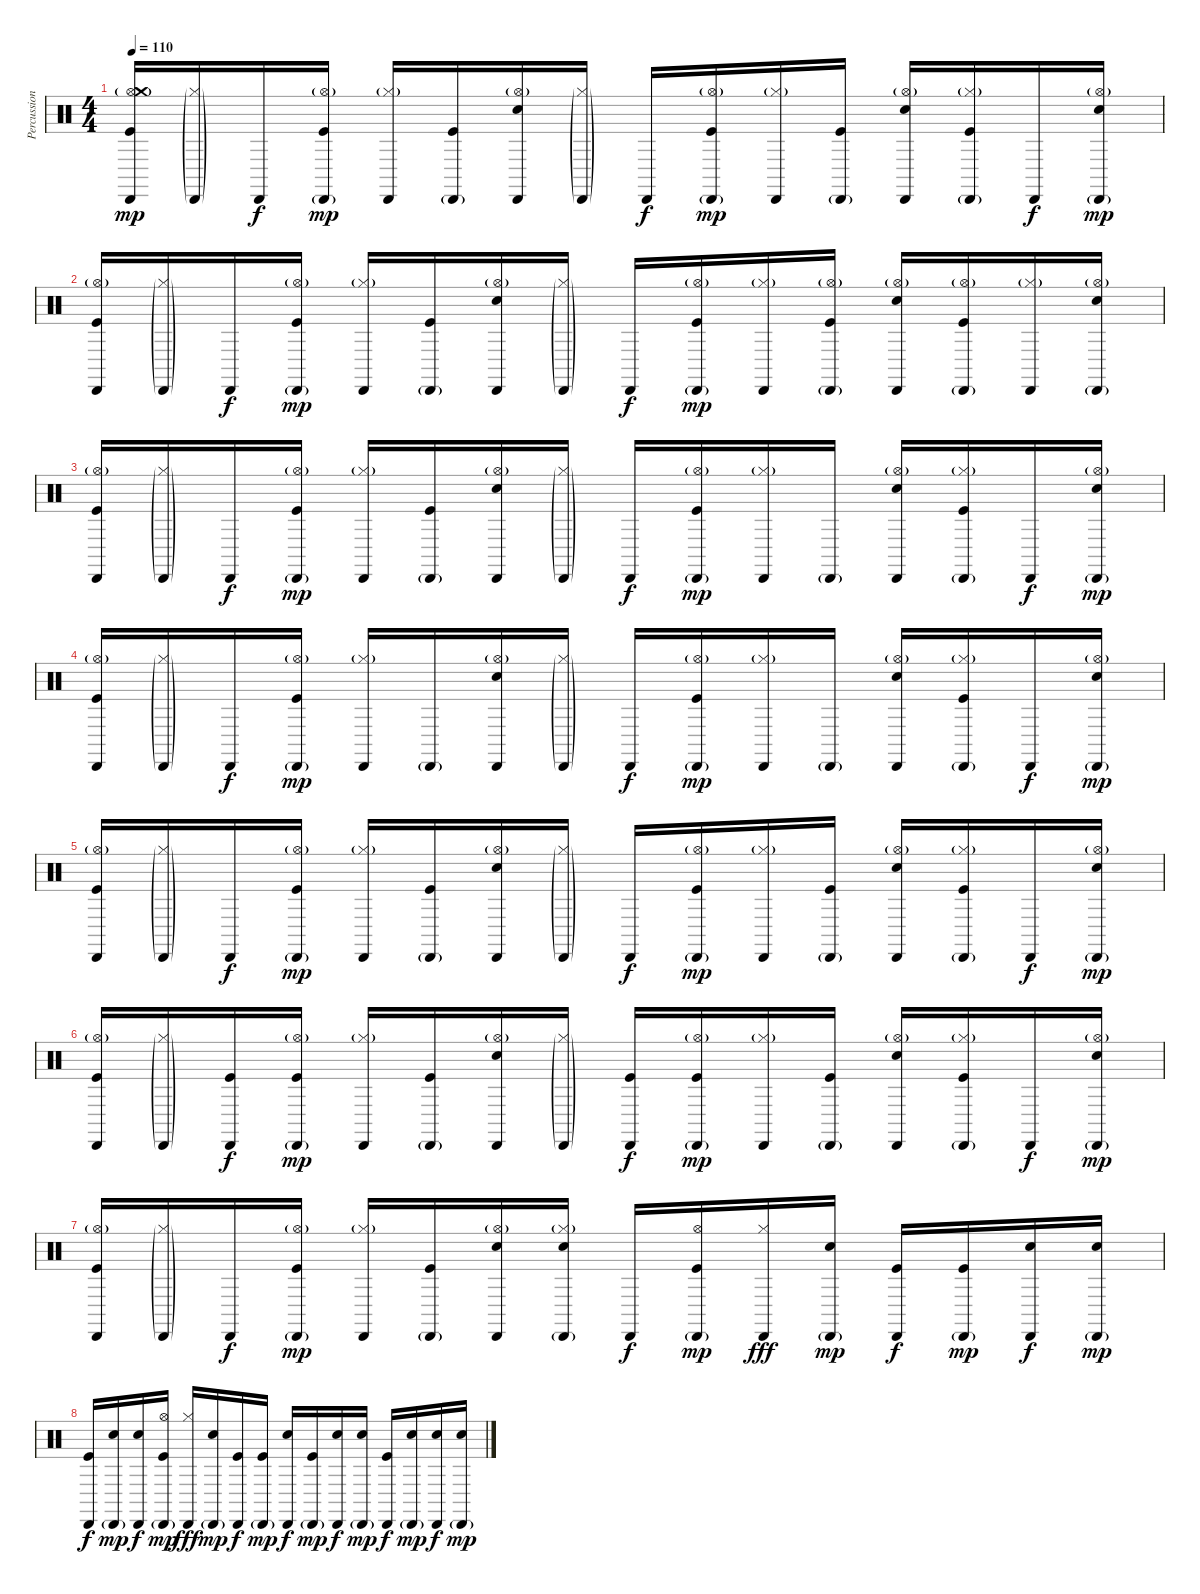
\track ("Percussion" "Percussion") {instrument percussion}
\staff {score}
\articulation defaults
\ts (4 4)
\tempo 110
\clef neutral
\ks c
("Cabasa (hit)" "Hi-Hat (open)"{g} "Crash medium (hit)" "Kick (hit)").16{dy mp} ("Cabasa (hit)"{g} "Hi-Hat (closed)"{g}).16 "Cabasa (hit)".16{dy f} ("Cabasa (hit)"{g} "Hi-Hat (open)"{g} "Kick (hit)").16{dy mp} ("Cabasa (hit)" "Hi-Hat (closed)"{g}).16 ("Cabasa (hit)"{g} "Kick (hit)").16 ("Cabasa (hit)" "Hi-Hat (open)"{g} "Snare (hit) 2").16 ("Cabasa (hit)"{g} "Hi-Hat (closed)"{g}).16 "Cabasa (hit)".16{dy f} ("Cabasa (hit)"{g} "Hi-Hat (open)"{g} "Kick (hit)").16{dy mp} ("Cabasa (hit)" "Hi-Hat (closed)"{g}).16 ("Cabasa (hit)"{g} "Kick (hit)").16 ("Cabasa (hit)" "Hi-Hat (open)"{g} "Snare (hit) 2").16 ("Cabasa (hit)"{g} "Hi-Hat (closed)"{g} "Kick (hit)").16 "Cabasa (hit)".16{dy f} ("Cabasa (hit)"{g} "Hi-Hat (open)"{g} "Snare (hit) 2").16{dy mp} |
("Cabasa (hit)" "Hi-Hat (open)"{g} "Kick (hit)").16 ("Cabasa (hit)"{g} "Hi-Hat (closed)"{g}).16 "Cabasa (hit)".16{dy f} ("Cabasa (hit)"{g} "Hi-Hat (open)"{g} "Kick (hit)").16{dy mp} ("Cabasa (hit)" "Hi-Hat (closed)"{g}).16 ("Cabasa (hit)"{g} "Kick (hit)").16 ("Cabasa (hit)" "Hi-Hat (open)"{g} "Snare (hit) 2").16 ("Cabasa (hit)"{g} "Hi-Hat (closed)"{g}).16 "Cabasa (hit)".16{dy f} ("Cabasa (hit)"{g} "Hi-Hat (open)"{g} "Kick (hit)").16{dy mp} ("Cabasa (hit)" "Hi-Hat (closed)"{g}).16 ("Cabasa (hit)"{g} "Hi-Hat (open)"{g} "Kick (hit)").16 ("Cabasa (hit)" "Hi-Hat (open)"{g} "Snare (hit) 2").16 ("Cabasa (hit)"{g} "Hi-Hat (open)"{g} "Kick (hit)").16 ("Cabasa (hit)" "Hi-Hat (closed)"{g}).16 ("Cabasa (hit)"{g} "Hi-Hat (open)"{g} "Snare (hit) 2").16 |
("Cabasa (hit)" "Hi-Hat (open)"{g} "Kick (hit)").16 ("Cabasa (hit)"{g} "Hi-Hat (closed)"{g}).16 "Cabasa (hit)".16{dy f} ("Cabasa (hit)"{g} "Hi-Hat (open)"{g} "Kick (hit)").16{dy mp} ("Cabasa (hit)" "Hi-Hat (closed)"{g}).16 ("Cabasa (hit)"{g} "Kick (hit)").16 ("Cabasa (hit)" "Hi-Hat (open)"{g} "Snare (hit) 2").16 ("Cabasa (hit)"{g} "Hi-Hat (closed)"{g}).16 "Cabasa (hit)".16{dy f} ("Cabasa (hit)"{g} "Hi-Hat (open)"{g} "Kick (hit)").16{dy mp} ("Cabasa (hit)" "Hi-Hat (closed)"{g}).16 "Cabasa (hit)"{g}.16 ("Cabasa (hit)" "Hi-Hat (open)"{g} "Snare (hit) 2").16 ("Cabasa (hit)"{g} "Hi-Hat (closed)"{g} "Kick (hit)").16 "Cabasa (hit)".16{dy f} ("Cabasa (hit)"{g} "Hi-Hat (open)"{g} "Snare (hit) 2").16{dy mp} |
("Cabasa (hit)" "Hi-Hat (open)"{g} "Kick (hit)").16 ("Cabasa (hit)"{g} "Hi-Hat (closed)"{g}).16 "Cabasa (hit)".16{dy f} ("Cabasa (hit)"{g} "Hi-Hat (open)"{g} "Kick (hit)").16{dy mp} ("Cabasa (hit)" "Hi-Hat (closed)"{g}).16 "Cabasa (hit)"{g}.16 ("Cabasa (hit)" "Hi-Hat (open)"{g} "Snare (hit) 2").16 ("Cabasa (hit)"{g} "Hi-Hat (closed)"{g}).16 "Cabasa (hit)".16{dy f} ("Cabasa (hit)"{g} "Hi-Hat (open)"{g} "Kick (hit)").16{dy mp} ("Cabasa (hit)" "Hi-Hat (closed)"{g}).16 "Cabasa (hit)"{g}.16 ("Cabasa (hit)" "Hi-Hat (open)"{g} "Snare (hit) 2").16 ("Cabasa (hit)"{g} "Hi-Hat (closed)"{g} "Kick (hit)").16 "Cabasa (hit)".16{dy f} ("Cabasa (hit)"{g} "Hi-Hat (open)"{g} "Snare (hit) 2").16{dy mp} |
("Cabasa (hit)" "Hi-Hat (open)"{g} "Kick (hit)").16 ("Cabasa (hit)"{g} "Hi-Hat (closed)"{g}).16 "Cabasa (hit)".16{dy f} ("Cabasa (hit)"{g} "Hi-Hat (open)"{g} "Kick (hit)").16{dy mp} ("Cabasa (hit)" "Hi-Hat (closed)"{g}).16 ("Cabasa (hit)"{g} "Kick (hit)").16 ("Cabasa (hit)" "Hi-Hat (open)"{g} "Snare (hit) 2").16 ("Cabasa (hit)"{g} "Hi-Hat (closed)"{g}).16 "Cabasa (hit)".16{dy f} ("Cabasa (hit)"{g} "Hi-Hat (open)"{g} "Kick (hit)").16{dy mp} ("Cabasa (hit)" "Hi-Hat (closed)"{g}).16 ("Cabasa (hit)"{g} "Kick (hit)").16 ("Cabasa (hit)" "Hi-Hat (open)"{g} "Snare (hit) 2").16 ("Cabasa (hit)"{g} "Hi-Hat (closed)"{g} "Kick (hit)").16 "Cabasa (hit)".16{dy f} ("Cabasa (hit)"{g} "Hi-Hat (open)"{g} "Snare (hit) 2").16{dy mp} |
("Cabasa (hit)" "Hi-Hat (open)"{g} "Kick (hit)").16 ("Cabasa (hit)"{g} "Hi-Hat (closed)"{g}).16 ("Cabasa (hit)" "Kick (hit)").16{dy f} ("Cabasa (hit)"{g} "Hi-Hat (open)"{g} "Kick (hit)").16{dy mp} ("Cabasa (hit)" "Hi-Hat (closed)"{g}).16 ("Cabasa (hit)"{g} "Kick (hit)").16 ("Cabasa (hit)" "Hi-Hat (open)"{g} "Snare (hit) 2").16 ("Cabasa (hit)"{g} "Hi-Hat (closed)"{g}).16 ("Cabasa (hit)" "Kick (hit)").16{dy f} ("Cabasa (hit)"{g} "Hi-Hat (open)"{g} "Kick (hit)").16{dy mp} ("Cabasa (hit)" "Hi-Hat (closed)"{g}).16 ("Cabasa (hit)"{g} "Kick (hit)").16 ("Cabasa (hit)" "Hi-Hat (open)"{g} "Snare (hit) 2").16 ("Cabasa (hit)"{g} "Hi-Hat (closed)"{g} "Kick (hit)").16 "Cabasa (hit)".16{dy f} ("Cabasa (hit)"{g} "Hi-Hat (open)"{g} "Snare (hit) 2").16{dy mp} |
("Cabasa (hit)" "Hi-Hat (open)"{g} "Kick (hit)").16 ("Cabasa (hit)"{g} "Hi-Hat (closed)"{g}).16 "Cabasa (hit)".16{dy f} ("Cabasa (hit)"{g} "Hi-Hat (open)"{g} "Kick (hit)").16{dy mp} ("Cabasa (hit)" "Hi-Hat (closed)"{g}).16 ("Cabasa (hit)"{g} "Kick (hit)").16 ("Cabasa (hit)" "Hi-Hat (open)"{g} "Snare (hit) 2").16 ("Cabasa (hit)"{g} "Hi-Hat (closed)"{g} "Snare (hit) 2").16 "Cabasa (hit)".16{dy f} ("Cabasa (hit)"{g} "Hi-Hat (open)" "Kick (hit)").16{dy mp} ("Cabasa (hit)" "Hi-Hat (closed)").16{dy fff} ("Cabasa (hit)"{g} "Snare (hit) 2").16{dy mp} ("Cabasa (hit)" "Kick (hit)").16{dy f} ("Cabasa (hit)"{g} "Kick (hit)").16{dy mp} ("Cabasa (hit)" "Snare (hit) 2").16{dy f} ("Cabasa (hit)"{g} "Snare (hit) 2").16{dy mp} |
("Cabasa (hit)" "Kick (hit)").16{dy f} ("Cabasa (hit)"{g} "Snare (hit) 2").16{dy mp} ("Cabasa (hit)" "Snare (hit) 2").16{dy f} ("Cabasa (hit)"{g} "Hi-Hat (open)" "Kick (hit)").16{dy mp} ("Cabasa (hit)" "Hi-Hat (closed)").16{dy fff} ("Cabasa (hit)"{g} "Snare (hit) 2").16{dy mp} ("Cabasa (hit)" "Kick (hit)").16{dy f} ("Cabasa (hit)"{g} "Kick (hit)").16{dy mp} ("Cabasa (hit)" "Snare (hit) 2").16{dy f} ("Cabasa (hit)"{g} "Kick (hit)").16{dy mp} ("Cabasa (hit)" "Snare (hit) 2").16{dy f} ("Cabasa (hit)"{g} "Snare (hit) 2").16{dy mp} ("Cabasa (hit)" "Kick (hit)").16{dy f} ("Cabasa (hit)"{g} "Snare (hit) 2").16{dy mp} ("Cabasa (hit)" "Snare (hit) 2").16{dy f} ("Cabasa (hit)"{g} "Snare (hit) 2").16{dy mp}
